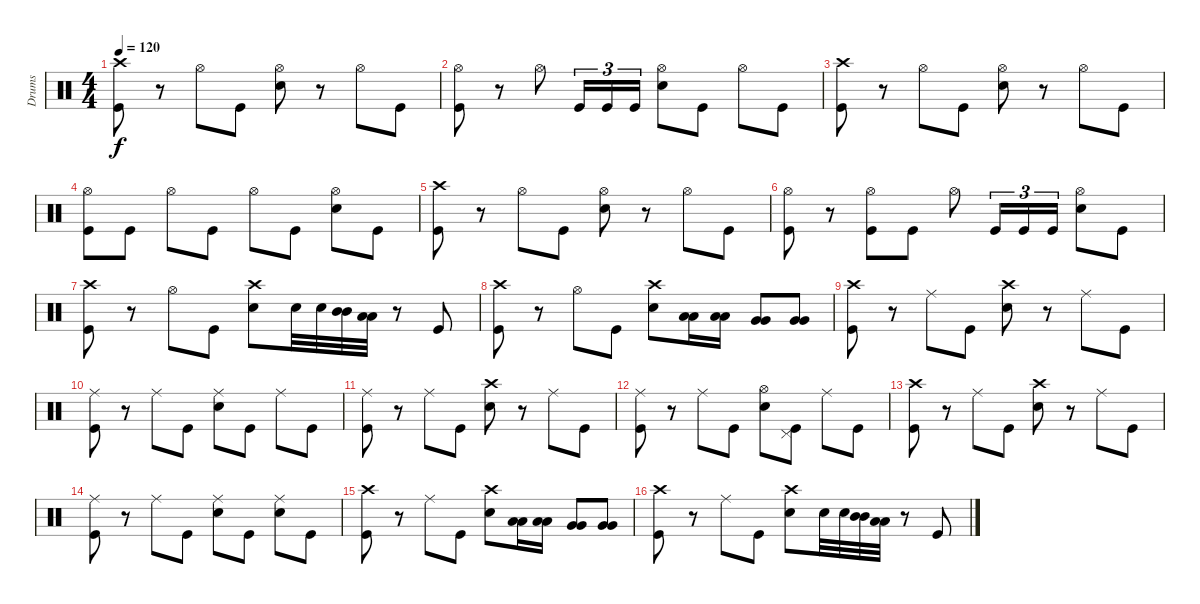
\track ("Drums" "Drums") {instrument percussion}
\staff {score}
\articulation defaults
\ts (4 4)
\tempo 120
\clef neutral
\ks c
("Crash high (hit)" "Kick (hit)").8{dy f} r.8 "Hi-Hat (open)".8 "Kick (hit)".8 ("Hi-Hat (open)" "Electric Snare (hit)").8 r.8 "Hi-Hat (open)".8 "Kick (hit)".8 |
("Hi-Hat (open)" "Kick (hit)").8 r.8 "Hi-Hat (open)".8 "Kick (hit)".16{tu (3 2)} "Kick (hit)".16{tu (3 2)} "Kick (hit)".16{tu (3 2)} ("Hi-Hat (open)" "Electric Snare (hit)").8 "Kick (hit)".8 "Hi-Hat (open)".8 "Kick (hit)".8 |
("Crash high (hit)" "Kick (hit)").8 r.8 "Hi-Hat (open)".8 "Kick (hit)".8 ("Hi-Hat (open)" "Electric Snare (hit)").8 r.8 "Hi-Hat (open)".8 "Kick (hit)".8 |
("Hi-Hat (open)" "Kick (hit)").8 "Kick (hit)".8 "Hi-Hat (open)".8 "Kick (hit)".8 "Hi-Hat (open)".8 "Kick (hit)".8 ("Hi-Hat (open)" "Electric Snare (hit)").8 "Kick (hit)".8 |
("Crash high (hit)" "Kick (hit)").8 r.8 "Hi-Hat (open)".8 "Kick (hit)".8 ("Hi-Hat (open)" "Electric Snare (hit)").8 r.8 "Hi-Hat (open)".8 "Kick (hit)".8 |
("Hi-Hat (open)" "Kick (hit)").8 r.8 ("Hi-Hat (open)" "Kick (hit)").8 "Kick (hit)".8 "Hi-Hat (open)".8 "Kick (hit)".16{tu (3 2)} "Kick (hit)".16{tu (3 2)} "Kick (hit)".16{tu (3 2)} ("Hi-Hat (open)" "Electric Snare (hit)").8 "Kick (hit)".8 |
("Crash high (hit)" "Kick (hit)").8 r.8 "Hi-Hat (open)".8 "Kick (hit)".8 ("Crash high (hit)" "Electric Snare (hit)").8 "Electric Snare (hit)".32 "Electric Snare (hit)".32 ("Mid Tom (hit)" "Mid Tom (hit)").32 ("Low Tom (hit)" "Low Tom (hit)").32 r.8 "Kick (hit)".8 |
("Crash high (hit)" "Kick (hit)").8 r.8 "Hi-Hat (open)".8 "Kick (hit)".8 ("Crash high (hit)" "Electric Snare (hit)").8 ("Low Tom (hit)" "Low Tom (hit)").16 ("Low Tom (hit)" "Low Tom (hit)").16 ("Very Low Tom (hit)" "Very Low Tom (hit)").8 ("Very Low Tom (hit)" "Very Low Tom (hit)").8 |
("Crash high (hit)" "Kick (hit)").8 r.8 "Ride (middle)".8 "Kick (hit)".8 ("Crash high (hit)" "Electric Snare (hit)").8 r.8 "Ride (middle)".8 "Kick (hit)".8 |
("Ride (middle)" "Kick (hit)").8 r.8 "Ride (middle)".8 "Kick (hit)".8 ("Ride (middle)" "Electric Snare (hit)").8 "Kick (hit)".8 "Ride (middle)".8 "Kick (hit)".8 |
("Ride (middle)" "Kick (hit)").8 r.8 "Ride (middle)".8 "Kick (hit)".8 ("Crash high (hit)" "Electric Snare (hit)").8 r.8 "Ride (middle)".8 "Kick (hit)".8 |
("Ride (middle)" "Kick (hit)").8 r.8 "Ride (middle)".8 "Kick (hit)".8 ("Hi-Hat (open)" "Electric Snare (hit)").8 ("Pedal Hi-Hat (hit)" "Kick (hit)").8 "Ride (middle)".8 "Kick (hit)".8 |
("Crash high (hit)" "Kick (hit)").8 r.8 "Ride (middle)".8 "Kick (hit)".8 ("Crash high (hit)" "Electric Snare (hit)").8 r.8 "Ride (middle)".8 "Kick (hit)".8 |
("Ride (middle)" "Kick (hit)").8 r.8 "Ride (middle)".8 "Kick (hit)".8 ("Ride (middle)" "Electric Snare (hit)").8 "Kick (hit)".8 ("Ride (middle)" "Electric Snare (hit)").8 "Kick (hit)".8 |
("Crash high (hit)" "Kick (hit)").8 r.8 "Ride (middle)".8 "Kick (hit)".8 ("Crash high (hit)" "Electric Snare (hit)").8 ("Low Tom (hit)" "Low Tom (hit)").16 ("Low Tom (hit)" "Low Tom (hit)").16 ("Very Low Tom (hit)" "Very Low Tom (hit)").8 ("Very Low Tom (hit)" "Very Low Tom (hit)").8 |
("Crash high (hit)" "Kick (hit)").8 r.8 "Ride (middle)".8 "Kick (hit)".8 ("Crash high (hit)" "Electric Snare (hit)").8 "Electric Snare (hit)".32 "Electric Snare (hit)".32 ("Mid Tom (hit)" "Mid Tom (hit)").32 ("Low Tom (hit)" "Low Tom (hit)").32 r.8 "Kick (hit)".8
